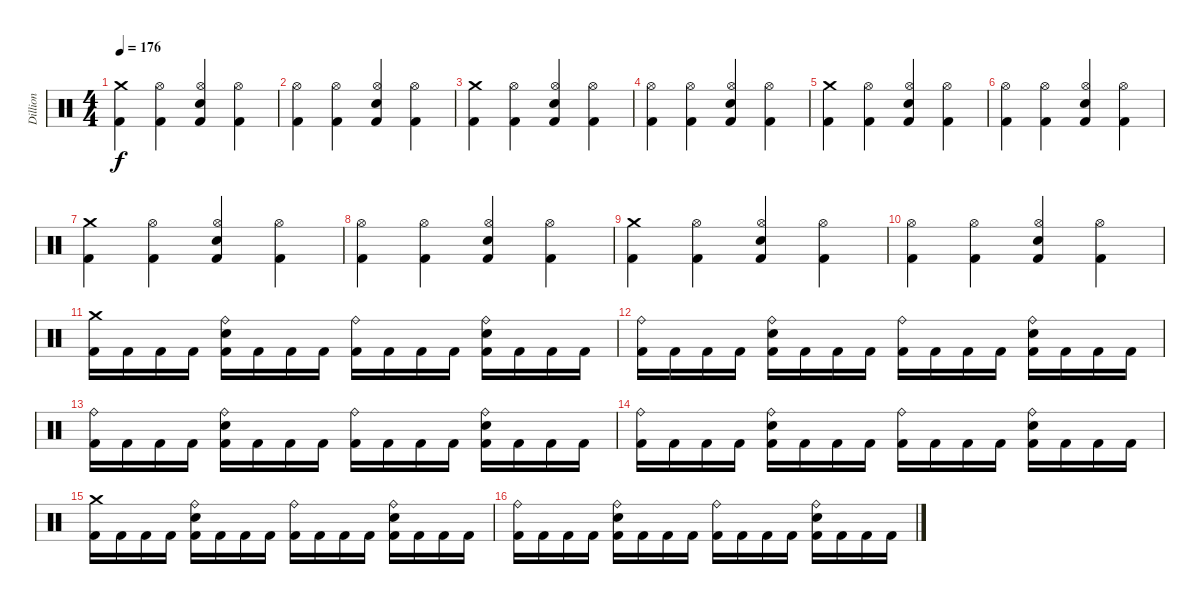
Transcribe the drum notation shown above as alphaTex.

\track ("Dillion" "Dillion") {instrument percussion}
\staff {score}
\articulation defaults
\ts (4 4)
\tempo 176
\clef neutral
\ks c
("Crash medium (hit)" "Kick (hit) 2").4{dy f} ("Hi-Hat (open)" "Kick (hit) 2").4 ("Hi-Hat (open)" "Electric Snare (hit)" "Kick (hit) 2").4 ("Hi-Hat (open)" "Kick (hit) 2").4 |
("Hi-Hat (open)" "Kick (hit) 2").4 ("Hi-Hat (open)" "Kick (hit) 2").4 ("Hi-Hat (open)" "Electric Snare (hit)" "Kick (hit) 2").4 ("Hi-Hat (open)" "Kick (hit) 2").4 |
("Crash medium (hit)" "Kick (hit) 2").4 ("Hi-Hat (open)" "Kick (hit) 2").4 ("Hi-Hat (open)" "Electric Snare (hit)" "Kick (hit) 2").4 ("Hi-Hat (open)" "Kick (hit) 2").4 |
("Hi-Hat (open)" "Kick (hit) 2").4 ("Hi-Hat (open)" "Kick (hit) 2").4 ("Hi-Hat (open)" "Electric Snare (hit)" "Kick (hit) 2").4 ("Hi-Hat (open)" "Kick (hit) 2").4 |
("Crash medium (hit)" "Kick (hit) 2").4 ("Hi-Hat (open)" "Kick (hit) 2").4 ("Hi-Hat (open)" "Electric Snare (hit)" "Kick (hit) 2").4 ("Hi-Hat (open)" "Kick (hit) 2").4 |
("Hi-Hat (open)" "Kick (hit) 2").4 ("Hi-Hat (open)" "Kick (hit) 2").4 ("Hi-Hat (open)" "Electric Snare (hit)" "Kick (hit) 2").4 ("Hi-Hat (open)" "Kick (hit) 2").4 |
("Crash medium (hit)" "Kick (hit) 2").4 ("Hi-Hat (open)" "Kick (hit) 2").4 ("Hi-Hat (open)" "Electric Snare (hit)" "Kick (hit) 2").4 ("Hi-Hat (open)" "Kick (hit) 2").4 |
("Hi-Hat (open)" "Kick (hit) 2").4 ("Hi-Hat (open)" "Kick (hit) 2").4 ("Hi-Hat (open)" "Electric Snare (hit)" "Kick (hit) 2").4 ("Hi-Hat (open)" "Kick (hit) 2").4 |
("Crash medium (hit)" "Kick (hit) 2").4 ("Hi-Hat (open)" "Kick (hit) 2").4 ("Hi-Hat (open)" "Electric Snare (hit)" "Kick (hit) 2").4 ("Hi-Hat (open)" "Kick (hit) 2").4 |
("Hi-Hat (open)" "Kick (hit) 2").4 ("Hi-Hat (open)" "Kick (hit) 2").4 ("Hi-Hat (open)" "Electric Snare (hit)" "Kick (hit) 2").4 ("Hi-Hat (open)" "Kick (hit) 2").4 |
("Crash medium (hit)" "Kick (hit) 2").16 "Kick (hit) 2".16 "Kick (hit) 2".16 "Kick (hit) 2".16 ("Ride (bell)" "Electric Snare (hit)" "Kick (hit) 2").16 "Kick (hit) 2".16 "Kick (hit) 2".16 "Kick (hit) 2".16 ("Ride (bell)" "Kick (hit) 2").16 "Kick (hit) 2".16 "Kick (hit) 2".16 "Kick (hit) 2".16 ("Ride (bell)" "Electric Snare (hit)" "Kick (hit) 2").16 "Kick (hit) 2".16 "Kick (hit) 2".16 "Kick (hit) 2".16 |
("Ride (bell)" "Kick (hit) 2").16 "Kick (hit) 2".16 "Kick (hit) 2".16 "Kick (hit) 2".16 ("Ride (bell)" "Electric Snare (hit)" "Kick (hit) 2").16 "Kick (hit) 2".16 "Kick (hit) 2".16 "Kick (hit) 2".16 ("Ride (bell)" "Kick (hit) 2").16 "Kick (hit) 2".16 "Kick (hit) 2".16 "Kick (hit) 2".16 ("Ride (bell)" "Electric Snare (hit)" "Kick (hit) 2").16 "Kick (hit) 2".16 "Kick (hit) 2".16 "Kick (hit) 2".16 |
("Ride (bell)" "Kick (hit) 2").16 "Kick (hit) 2".16 "Kick (hit) 2".16 "Kick (hit) 2".16 ("Ride (bell)" "Electric Snare (hit)" "Kick (hit) 2").16 "Kick (hit) 2".16 "Kick (hit) 2".16 "Kick (hit) 2".16 ("Ride (bell)" "Kick (hit) 2").16 "Kick (hit) 2".16 "Kick (hit) 2".16 "Kick (hit) 2".16 ("Ride (bell)" "Electric Snare (hit)" "Kick (hit) 2").16 "Kick (hit) 2".16 "Kick (hit) 2".16 "Kick (hit) 2".16 |
("Ride (bell)" "Kick (hit) 2").16 "Kick (hit) 2".16 "Kick (hit) 2".16 "Kick (hit) 2".16 ("Ride (bell)" "Electric Snare (hit)" "Kick (hit) 2").16 "Kick (hit) 2".16 "Kick (hit) 2".16 "Kick (hit) 2".16 ("Ride (bell)" "Kick (hit) 2").16 "Kick (hit) 2".16 "Kick (hit) 2".16 "Kick (hit) 2".16 ("Ride (bell)" "Electric Snare (hit)" "Kick (hit) 2").16 "Kick (hit) 2".16 "Kick (hit) 2".16 "Kick (hit) 2".16 |
("Crash medium (hit)" "Kick (hit) 2").16 "Kick (hit) 2".16 "Kick (hit) 2".16 "Kick (hit) 2".16 ("Ride (bell)" "Electric Snare (hit)" "Kick (hit) 2").16 "Kick (hit) 2".16 "Kick (hit) 2".16 "Kick (hit) 2".16 ("Ride (bell)" "Kick (hit) 2").16 "Kick (hit) 2".16 "Kick (hit) 2".16 "Kick (hit) 2".16 ("Ride (bell)" "Electric Snare (hit)" "Kick (hit) 2").16 "Kick (hit) 2".16 "Kick (hit) 2".16 "Kick (hit) 2".16 |
("Ride (bell)" "Kick (hit) 2").16 "Kick (hit) 2".16 "Kick (hit) 2".16 "Kick (hit) 2".16 ("Ride (bell)" "Electric Snare (hit)" "Kick (hit) 2").16 "Kick (hit) 2".16 "Kick (hit) 2".16 "Kick (hit) 2".16 ("Ride (bell)" "Kick (hit) 2").16 "Kick (hit) 2".16 "Kick (hit) 2".16 "Kick (hit) 2".16 ("Ride (bell)" "Electric Snare (hit)" "Kick (hit) 2").16 "Kick (hit) 2".16 "Kick (hit) 2".16 "Kick (hit) 2".16
